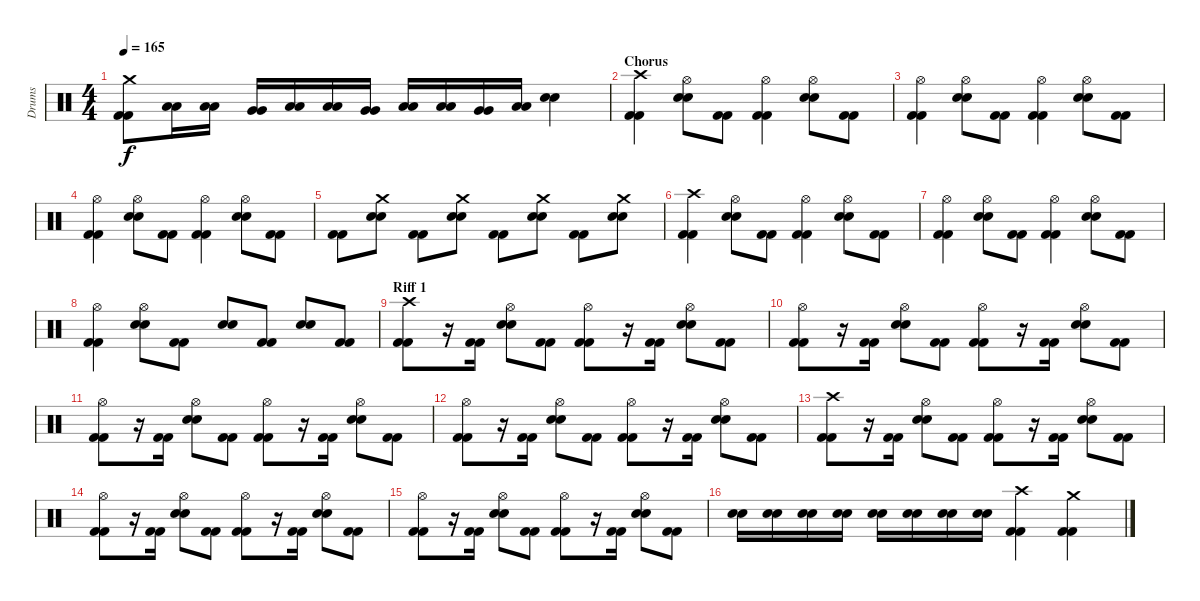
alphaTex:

\track ("Drums" "Drums") {instrument percussion}
\staff {score}
\articulation defaults
\ts (4 4)
\tempo 165
\clef neutral
\ks c
("Crash medium (hit)" "Kick (hit) 2" "Kick (hit) 2").8{dy f} ("Low Tom (hit)" "Low Tom (hit)").16 ("Low Tom (hit)" "Low Tom (hit)").16 ("Very Low Tom (hit)" "Very Low Tom (hit)").16 ("Low Tom (hit)" "Low Tom (hit)").16 ("Low Tom (hit)" "Low Tom (hit)").16 ("Very Low Tom (hit)" "Very Low Tom (hit)").16 ("Low Tom (hit)" "Low Tom (hit)").16 ("Low Tom (hit)" "Low Tom (hit)").16 ("Very Low Tom (hit)" "Very Low Tom (hit)").16 ("Low Tom (hit)" "Low Tom (hit)").16 ("Snare (hit) 2" "Snare (hit) 2").4 |
\section ("" "Chorus")
("Crash high (hit)" "Kick (hit) 2" "Kick (hit) 2").4 ("Hi-Hat (open)" "Snare (hit) 2" "Snare (hit) 2").8 ("Kick (hit) 2" "Kick (hit) 2").8 ("Hi-Hat (open)" "Kick (hit) 2" "Kick (hit) 2").4 ("Hi-Hat (open)" "Snare (hit) 2" "Snare (hit) 2").8 ("Kick (hit) 2" "Kick (hit) 2").8 |
("Hi-Hat (open)" "Kick (hit) 2" "Kick (hit) 2").4 ("Hi-Hat (open)" "Snare (hit) 2" "Snare (hit) 2").8 ("Kick (hit) 2" "Kick (hit) 2").8 ("Hi-Hat (open)" "Kick (hit) 2" "Kick (hit) 2").4 ("Hi-Hat (open)" "Snare (hit) 2" "Snare (hit) 2").8 ("Kick (hit) 2" "Kick (hit) 2").8 |
("Hi-Hat (open)" "Kick (hit) 2" "Kick (hit) 2").4 ("Hi-Hat (open)" "Snare (hit) 2" "Snare (hit) 2").8 ("Kick (hit) 2" "Kick (hit) 2").8 ("Hi-Hat (open)" "Kick (hit) 2" "Kick (hit) 2").4 ("Hi-Hat (open)" "Snare (hit) 2" "Snare (hit) 2").8 ("Kick (hit) 2" "Kick (hit) 2").8 |
("Kick (hit) 2" "Kick (hit) 2").8 ("Crash medium (hit)" "Snare (hit) 2" "Snare (hit) 2").8 ("Kick (hit) 2" "Kick (hit) 2").8 ("Crash medium (hit)" "Snare (hit) 2" "Snare (hit) 2").8 ("Kick (hit) 2" "Kick (hit) 2").8 ("Crash medium (hit)" "Snare (hit) 2" "Snare (hit) 2").8 ("Kick (hit) 2" "Kick (hit) 2").8 ("Crash medium (hit)" "Snare (hit) 2" "Snare (hit) 2").8 |
("Crash high (hit)" "Kick (hit) 2" "Kick (hit) 2").4 ("Hi-Hat (open)" "Snare (hit) 2" "Snare (hit) 2").8 ("Kick (hit) 2" "Kick (hit) 2").8 ("Hi-Hat (open)" "Kick (hit) 2" "Kick (hit) 2").4 ("Hi-Hat (open)" "Snare (hit) 2" "Snare (hit) 2").8 ("Kick (hit) 2" "Kick (hit) 2").8 |
("Hi-Hat (open)" "Kick (hit) 2" "Kick (hit) 2").4 ("Hi-Hat (open)" "Snare (hit) 2" "Snare (hit) 2").8 ("Kick (hit) 2" "Kick (hit) 2").8 ("Hi-Hat (open)" "Kick (hit) 2" "Kick (hit) 2").4 ("Hi-Hat (open)" "Snare (hit) 2" "Snare (hit) 2").8 ("Kick (hit) 2" "Kick (hit) 2").8 |
("Hi-Hat (open)" "Kick (hit) 2" "Kick (hit) 2").4 ("Hi-Hat (open)" "Snare (hit) 2" "Snare (hit) 2").8 ("Kick (hit) 2" "Kick (hit) 2").8 ("Snare (hit) 2" "Snare (hit) 2").8 ("Kick (hit) 2" "Kick (hit) 2").8 ("Snare (hit) 2" "Snare (hit) 2").8 ("Kick (hit) 2" "Kick (hit) 2").8 |
\section ("" "Riff 1")
("Crash high (hit)" "Kick (hit) 2" "Kick (hit) 2").8 r.16 ("Kick (hit) 2" "Kick (hit) 2").16 ("Hi-Hat (open)" "Snare (hit) 2" "Snare (hit) 2").8 ("Kick (hit) 2" "Kick (hit) 2").8 ("Hi-Hat (open)" "Kick (hit) 2" "Kick (hit) 2").8 r.16 ("Kick (hit) 2" "Kick (hit) 2").16 ("Hi-Hat (open)" "Snare (hit) 2" "Snare (hit) 2").8 ("Kick (hit) 2" "Kick (hit) 2").8 |
("Hi-Hat (open)" "Kick (hit) 2" "Kick (hit) 2").8 r.16 ("Kick (hit) 2" "Kick (hit) 2").16 ("Hi-Hat (open)" "Snare (hit) 2" "Snare (hit) 2").8 ("Kick (hit) 2" "Kick (hit) 2").8 ("Hi-Hat (open)" "Kick (hit) 2" "Kick (hit) 2").8 r.16 ("Kick (hit) 2" "Kick (hit) 2").16 ("Hi-Hat (open)" "Snare (hit) 2" "Snare (hit) 2").8 ("Kick (hit) 2" "Kick (hit) 2").8 |
("Hi-Hat (open)" "Kick (hit) 2" "Kick (hit) 2").8 r.16 ("Kick (hit) 2" "Kick (hit) 2").16 ("Hi-Hat (open)" "Snare (hit) 2" "Snare (hit) 2").8 ("Kick (hit) 2" "Kick (hit) 2").8 ("Hi-Hat (open)" "Kick (hit) 2" "Kick (hit) 2").8 r.16 ("Kick (hit) 2" "Kick (hit) 2").16 ("Hi-Hat (open)" "Snare (hit) 2" "Snare (hit) 2").8 ("Kick (hit) 2" "Kick (hit) 2").8 |
("Hi-Hat (open)" "Kick (hit) 2" "Kick (hit) 2").8 r.16 ("Kick (hit) 2" "Kick (hit) 2").16 ("Hi-Hat (open)" "Snare (hit) 2" "Snare (hit) 2").8 ("Kick (hit) 2" "Kick (hit) 2").8 ("Hi-Hat (open)" "Kick (hit) 2" "Kick (hit) 2").8 r.16 ("Kick (hit) 2" "Kick (hit) 2").16 ("Hi-Hat (open)" "Snare (hit) 2" "Snare (hit) 2").8 ("Kick (hit) 2" "Kick (hit) 2").8 |
("Crash high (hit)" "Kick (hit) 2" "Kick (hit) 2").8 r.16 ("Kick (hit) 2" "Kick (hit) 2").16 ("Hi-Hat (open)" "Snare (hit) 2" "Snare (hit) 2").8 ("Kick (hit) 2" "Kick (hit) 2").8 ("Hi-Hat (open)" "Kick (hit) 2" "Kick (hit) 2").8 r.16 ("Kick (hit) 2" "Kick (hit) 2").16 ("Hi-Hat (open)" "Snare (hit) 2" "Snare (hit) 2").8 ("Kick (hit) 2" "Kick (hit) 2").8 |
("Hi-Hat (open)" "Kick (hit) 2" "Kick (hit) 2").8 r.16 ("Kick (hit) 2" "Kick (hit) 2").16 ("Hi-Hat (open)" "Snare (hit) 2" "Snare (hit) 2").8 ("Kick (hit) 2" "Kick (hit) 2").8 ("Hi-Hat (open)" "Kick (hit) 2" "Kick (hit) 2").8 r.16 ("Kick (hit) 2" "Kick (hit) 2").16 ("Hi-Hat (open)" "Snare (hit) 2" "Snare (hit) 2").8 ("Kick (hit) 2" "Kick (hit) 2").8 |
("Hi-Hat (open)" "Kick (hit) 2" "Kick (hit) 2").8 r.16 ("Kick (hit) 2" "Kick (hit) 2").16 ("Hi-Hat (open)" "Snare (hit) 2" "Snare (hit) 2").8 ("Kick (hit) 2" "Kick (hit) 2").8 ("Hi-Hat (open)" "Kick (hit) 2" "Kick (hit) 2").8 r.16 ("Kick (hit) 2" "Kick (hit) 2").16 ("Hi-Hat (open)" "Snare (hit) 2" "Snare (hit) 2").8 ("Kick (hit) 2" "Kick (hit) 2").8 |
("Snare (hit) 2" "Snare (hit) 2").16 ("Snare (hit) 2" "Snare (hit) 2").16 ("Snare (hit) 2" "Snare (hit) 2").16 ("Snare (hit) 2" "Snare (hit) 2").16 ("Snare (hit) 2" "Snare (hit) 2").16 ("Snare (hit) 2" "Snare (hit) 2").16 ("Snare (hit) 2" "Snare (hit) 2").16 ("Snare (hit) 2" "Snare (hit) 2").16 ("Crash high (hit)" "Kick (hit) 2" "Kick (hit) 2").4 ("Crash medium (hit)" "Kick (hit) 2" "Kick (hit) 2").4
